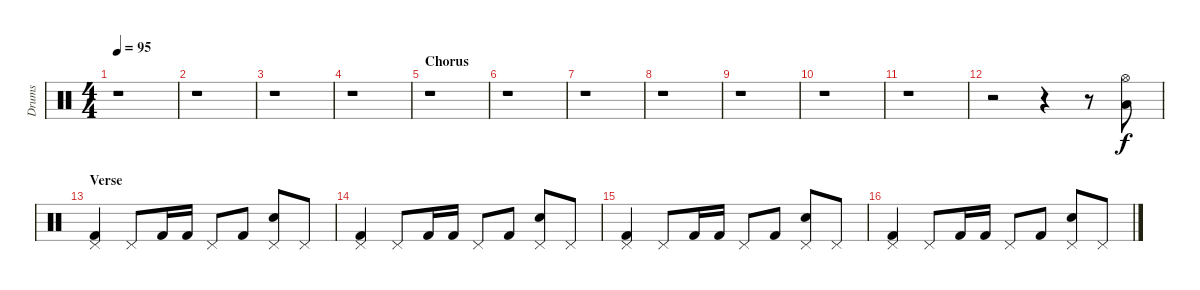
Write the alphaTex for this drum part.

\track ("Drums" "Drums") {instrument percussion}
\staff {score}
\articulation defaults
\ts (4 4)
\tempo 95
\clef neutral
\ks c
r.1{dy f} |
r.1 |
r.1 |
r.1 |
\section ("" "Chorus")
r.1 |
r.1 |
r.1 |
r.1 |
r.1 |
r.1 |
r.1 |
r.2 r.4 r.8 ("Low Tom (hit)" "Hi-Hat (open)").8 |
\section ("" "Verse")
("Pedal Hi-Hat (hit)" "Kick (hit) 2").4 "Pedal Hi-Hat (hit)".8 "Kick (hit) 2".16 "Kick (hit) 2".16 "Pedal Hi-Hat (hit)".8 "Kick (hit) 2".8 ("Pedal Hi-Hat (hit)" "Electric Snare (hit)").8 "Pedal Hi-Hat (hit)".8 |
("Pedal Hi-Hat (hit)" "Kick (hit) 2").4 "Pedal Hi-Hat (hit)".8 "Kick (hit) 2".16 "Kick (hit) 2".16 "Pedal Hi-Hat (hit)".8 "Kick (hit) 2".8 ("Pedal Hi-Hat (hit)" "Electric Snare (hit)").8 "Pedal Hi-Hat (hit)".8 |
("Pedal Hi-Hat (hit)" "Kick (hit) 2").4 "Pedal Hi-Hat (hit)".8 "Kick (hit) 2".16 "Kick (hit) 2".16 "Pedal Hi-Hat (hit)".8 "Kick (hit) 2".8 ("Pedal Hi-Hat (hit)" "Electric Snare (hit)").8 "Pedal Hi-Hat (hit)".8 |
("Pedal Hi-Hat (hit)" "Kick (hit) 2").4 "Pedal Hi-Hat (hit)".8 "Kick (hit) 2".16 "Kick (hit) 2".16 "Pedal Hi-Hat (hit)".8 "Kick (hit) 2".8 ("Pedal Hi-Hat (hit)" "Electric Snare (hit)").8 "Pedal Hi-Hat (hit)".8
